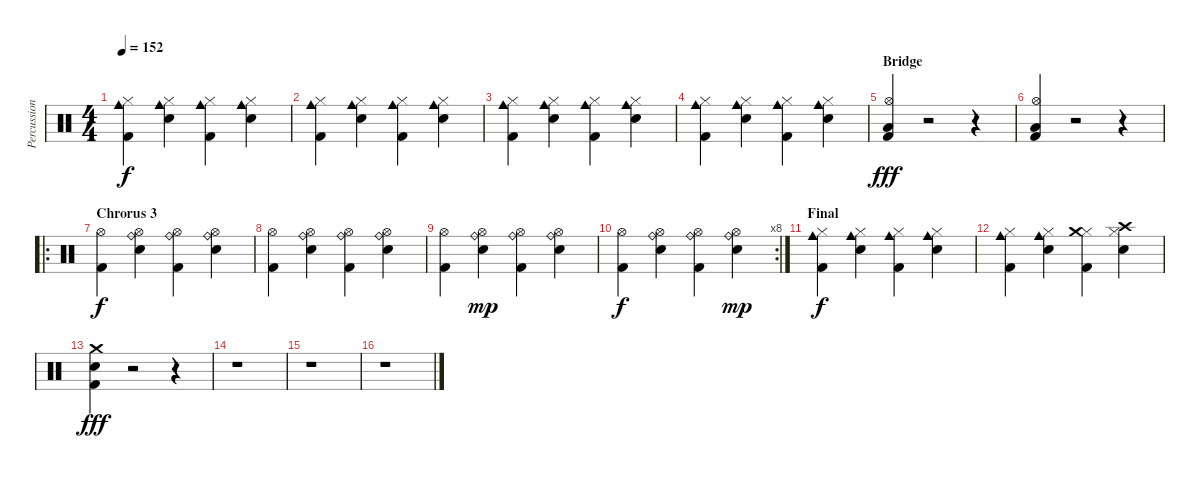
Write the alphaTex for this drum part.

\track ("Percussions" "Percussion") {instrument percussion}
\staff {score}
\articulation defaults
\ts (4 4)
\tempo 152
\clef neutral
\ks c
("Hi-Hat (closed)" "Cowbell medium (hit)" "Kick (hit) 2").4{dy f} ("Hi-Hat (closed)" "Cowbell medium (hit)" "Electric Snare (hit)").4 ("Hi-Hat (closed)" "Cowbell medium (hit)" "Kick (hit) 2").4 ("Hi-Hat (closed)" "Cowbell medium (hit)" "Electric Snare (hit)").4 |
("Hi-Hat (closed)" "Cowbell medium (hit)" "Kick (hit) 2").4 ("Hi-Hat (closed)" "Cowbell medium (hit)" "Electric Snare (hit)").4 ("Hi-Hat (closed)" "Cowbell medium (hit)" "Kick (hit) 2").4 ("Hi-Hat (closed)" "Cowbell medium (hit)" "Electric Snare (hit)").4 |
("Hi-Hat (closed)" "Cowbell medium (hit)" "Kick (hit) 2").4 ("Hi-Hat (closed)" "Cowbell medium (hit)" "Electric Snare (hit)").4 ("Hi-Hat (closed)" "Cowbell medium (hit)" "Kick (hit) 2").4 ("Hi-Hat (closed)" "Cowbell medium (hit)" "Electric Snare (hit)").4 |
("Hi-Hat (closed)" "Cowbell medium (hit)" "Kick (hit) 2").4 ("Hi-Hat (closed)" "Cowbell medium (hit)" "Electric Snare (hit)").4 ("Hi-Hat (closed)" "Cowbell medium (hit)" "Kick (hit) 2").4 ("Hi-Hat (closed)" "Cowbell medium (hit)" "Electric Snare (hit)").4 |
\section ("" "Bridge")
("Hi-Hat (open)" "Kick (hit) 2" "Low Tom (hit)").4{dy fff} r.2 r.4 |
("Hi-Hat (open)" "Kick (hit) 2" "Low Tom (hit)").4 r.2 r.4 |
\ro
\section ("" "Chrorus 3")
("Hi-Hat (open)" "Kick (hit) 2").4{dy f} ("Hi-Hat (open)" "Ride (bell)" "Electric Snare (hit)").4 ("Hi-Hat (open)" "Ride (bell)" "Kick (hit) 2").4 ("Hi-Hat (open)" "Ride (bell)" "Electric Snare (hit)").4 |
("Hi-Hat (open)" "Kick (hit) 2").4 ("Hi-Hat (open)" "Ride (bell)" "Electric Snare (hit)").4 ("Hi-Hat (open)" "Ride (bell)" "Kick (hit) 2").4 ("Hi-Hat (open)" "Ride (bell)" "Electric Snare (hit)").4 |
("Hi-Hat (open)" "Kick (hit) 2").4 ("Hi-Hat (open)" "Ride (bell)" "Electric Snare (hit)").4{dy mp} ("Hi-Hat (open)" "Ride (bell)" "Kick (hit) 2").4 ("Hi-Hat (open)" "Ride (bell)" "Electric Snare (hit)").4 |
\rc 8
("Hi-Hat (open)" "Kick (hit) 2").4{dy f} ("Hi-Hat (open)" "Ride (bell)" "Electric Snare (hit)").4 ("Hi-Hat (open)" "Ride (bell)" "Kick (hit) 2").4 ("Hi-Hat (open)" "Ride (bell)" "Electric Snare (hit)").4{dy mp} |
\section ("" "Final")
("Hi-Hat (closed)" "Cowbell medium (hit)" "Kick (hit) 2").4{dy f} ("Hi-Hat (closed)" "Cowbell medium (hit)" "Electric Snare (hit)").4 ("Hi-Hat (closed)" "Cowbell medium (hit)" "Kick (hit) 2").4 ("Hi-Hat (closed)" "Cowbell medium (hit)" "Electric Snare (hit)").4 |
("Hi-Hat (closed)" "Cowbell medium (hit)" "Kick (hit) 2").4 ("Hi-Hat (closed)" "Cowbell medium (hit)" "Electric Snare (hit)").4 ("Hi-Hat (closed)" "Crash medium (hit)" "Kick (hit) 2").4 ("Hi-Hat (closed)" "Crash high (hit)" "Electric Snare (hit)").4 |
("Crash medium (hit)" "Electric Snare (hit)" "Kick (hit) 2").4{dy fff} r.2 r.4 |
r.1 |
r.1 |
r.1
